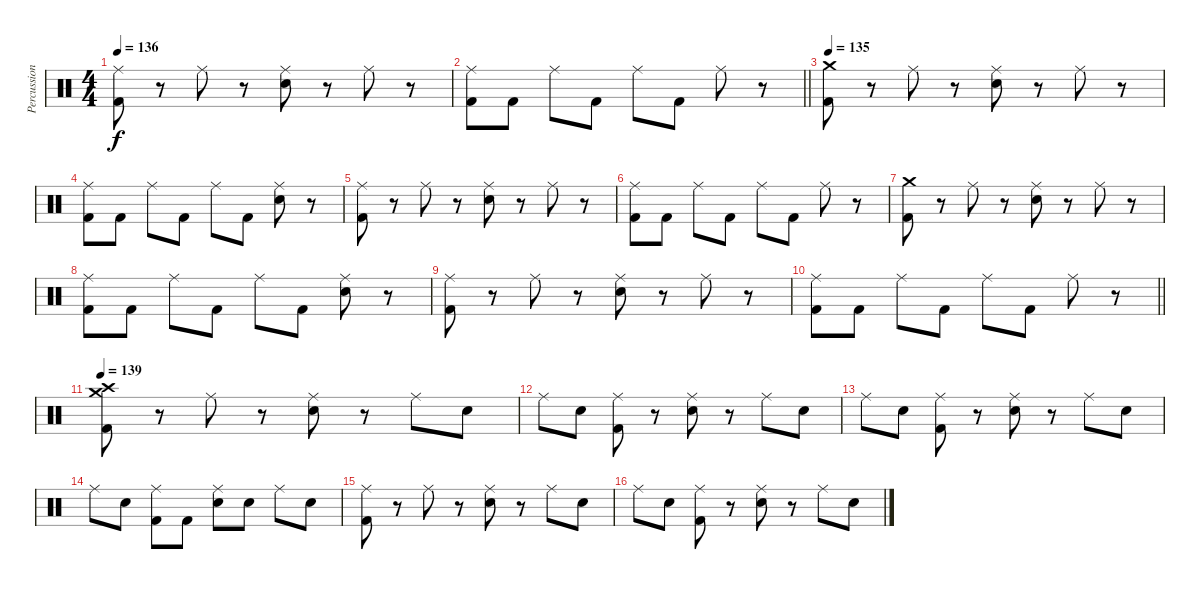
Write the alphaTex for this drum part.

\track ("Percussion" "Percussion") {instrument percussion}
\staff {score}
\articulation defaults
\ts (4 4)
\tempo 136
\clef neutral
\ks c
("Ride (middle)" "Kick (hit) 2").8{dy f} r.8 "Ride (middle)".8 r.8 ("Ride (middle)" "Electric Snare (hit)").8 r.8 "Ride (middle)".8 r.8 |
\barLineRight lightlight
("Ride (middle)" "Kick (hit) 2").8 "Kick (hit) 2".8 "Ride (middle)".8 "Kick (hit) 2".8 "Ride (middle)".8 "Kick (hit) 2".8 "Ride (middle)".8 r.8 |
\tempo 135
("Crash medium (hit)" "Kick (hit) 2").8 r.8 "Ride (middle)".8 r.8 ("Ride (middle)" "Electric Snare (hit)").8 r.8 "Ride (middle)".8 r.8 |
("Ride (middle)" "Kick (hit) 2").8 "Kick (hit) 2".8 "Ride (middle)".8 "Kick (hit) 2".8 "Ride (middle)".8 "Kick (hit) 2".8 ("Ride (middle)" "Electric Snare (hit)").8 r.8 |
("Ride (middle)" "Kick (hit) 2").8 r.8 "Ride (middle)".8 r.8 ("Ride (middle)" "Electric Snare (hit)").8 r.8 "Ride (middle)".8 r.8 |
("Ride (middle)" "Kick (hit) 2").8 "Kick (hit) 2".8 "Ride (middle)".8 "Kick (hit) 2".8 "Ride (middle)".8 "Kick (hit) 2".8 "Ride (middle)".8 r.8 |
("Crash medium (hit)" "Kick (hit) 2").8 r.8 "Ride (middle)".8 r.8 ("Ride (middle)" "Electric Snare (hit)").8 r.8 "Ride (middle)".8 r.8 |
("Ride (middle)" "Kick (hit) 2").8 "Kick (hit) 2".8 "Ride (middle)".8 "Kick (hit) 2".8 "Ride (middle)".8 "Kick (hit) 2".8 ("Ride (middle)" "Electric Snare (hit)").8 r.8 |
("Ride (middle)" "Kick (hit) 2").8 r.8 "Ride (middle)".8 r.8 ("Ride (middle)" "Electric Snare (hit)").8 r.8 "Ride (middle)".8 r.8 |
\barLineRight lightlight
("Ride (middle)" "Kick (hit) 2").8 "Kick (hit) 2".8 "Ride (middle)".8 "Kick (hit) 2".8 "Ride (middle)".8 "Kick (hit) 2".8 "Ride (middle)".8 r.8 |
\section ("" "")
\tempo 139
("Crash medium (hit)" "Crash high (hit)" "Kick (hit) 2").8 r.8 "Ride (middle)".8 r.8 ("Ride (middle)" "Electric Snare (hit)").8 r.8 "Ride (middle)".8 "Electric Snare (hit)".8 |
"Ride (middle)".8 "Electric Snare (hit)".8 ("Ride (middle)" "Kick (hit) 2").8 r.8 ("Ride (middle)" "Electric Snare (hit)").8 r.8 "Ride (middle)".8 "Electric Snare (hit)".8 |
"Ride (middle)".8 "Electric Snare (hit)".8 ("Ride (middle)" "Kick (hit) 2").8 r.8 ("Ride (middle)" "Electric Snare (hit)").8 r.8 "Ride (middle)".8 "Electric Snare (hit)".8 |
"Ride (middle)".8 "Electric Snare (hit)".8 ("Ride (middle)" "Kick (hit) 2").8 "Kick (hit) 2".8 ("Ride (middle)" "Electric Snare (hit)").8 "Electric Snare (hit)".8 "Ride (middle)".8 "Electric Snare (hit)".8 |
("Ride (middle)" "Kick (hit) 2").8 r.8 "Ride (middle)".8 r.8 ("Ride (middle)" "Electric Snare (hit)").8 r.8 "Ride (middle)".8 "Electric Snare (hit)".8 |
"Ride (middle)".8 "Electric Snare (hit)".8 ("Ride (middle)" "Kick (hit) 2").8 r.8 ("Ride (middle)" "Electric Snare (hit)").8 r.8 "Ride (middle)".8 "Electric Snare (hit)".8
